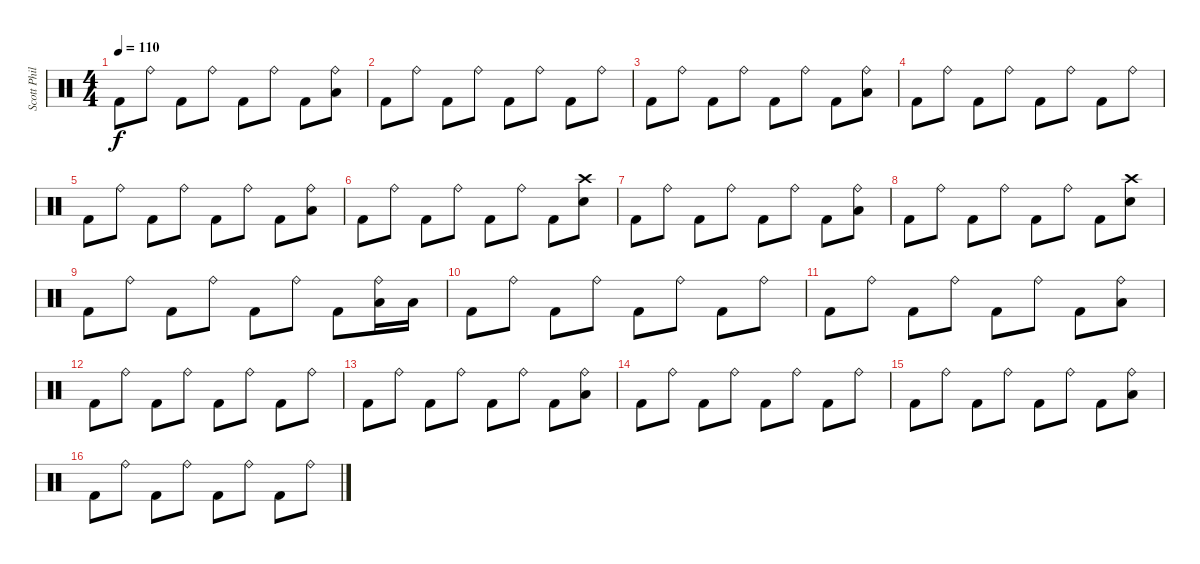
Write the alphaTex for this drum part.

\track ("Scott Phillips" "Scott Phil") {instrument percussion}
\staff {score}
\articulation defaults
\ts (4 4)
\tempo 110
\clef neutral
\ks c "Kick (hit) 2".8{dy f} "Ride (bell)".8 "Kick (hit) 2".8 "Ride (bell)".8 "Kick (hit) 2".8 "Ride (bell)".8 "Kick (hit) 2".8
("Ride (bell)" "Low Tom (hit)").8 |
"Kick (hit) 2".8 "Ride (bell)".8 "Kick (hit) 2".8 "Ride (bell)".8 "Kick (hit) 2".8 "Ride (bell)".8 "Kick (hit) 2".8 "Ride (bell)".8 |
"Kick (hit) 2".8 "Ride (bell)".8 "Kick (hit) 2".8 "Ride (bell)".8 "Kick (hit) 2".8 "Ride (bell)".8 "Kick (hit) 2".8 ("Ride (bell)" "Low Tom (hit)").8 |
"Kick (hit) 2".8 "Ride (bell)".8 "Kick (hit) 2".8 "Ride (bell)".8 "Kick (hit) 2".8 "Ride (bell)".8 "Kick (hit) 2".8 "Ride (bell)".8 |
"Kick (hit) 2".8 "Ride (bell)".8 "Kick (hit) 2".8 "Ride (bell)".8 "Kick (hit) 2".8 "Ride (bell)".8 "Kick (hit) 2".8 ("Ride (bell)" "Low Tom (hit)").8 |
"Kick (hit) 2".8 "Ride (bell)".8 "Kick (hit) 2".8 "Ride (bell)".8 "Kick (hit) 2".8 "Ride (bell)".8 "Kick (hit) 2".8 ("Crash high (hit)" "Electric Snare (hit)").8 |
"Kick (hit) 2".8 "Ride (bell)".8 "Kick (hit) 2".8 "Ride (bell)".8 "Kick (hit) 2".8 "Ride (bell)".8 "Kick (hit) 2".8 ("Ride (bell)" "Low Tom (hit)").8 |
"Kick (hit) 2".8 "Ride (bell)".8 "Kick (hit) 2".8 "Ride (bell)".8 "Kick (hit) 2".8 "Ride (bell)".8 "Kick (hit) 2".8 ("Crash high (hit)" "Electric Snare (hit)").8 |
"Kick (hit) 2".8 "Ride (bell)".8 "Kick (hit) 2".8 "Ride (bell)".8 "Kick (hit) 2".8 "Ride (bell)".8 "Kick (hit) 2".8 ("Ride (bell)" "Low Tom (hit)").16 "Low Tom (hit)".16 |
"Kick (hit) 2".8 "Ride (bell)".8 "Kick (hit) 2".8 "Ride (bell)".8 "Kick (hit) 2".8 "Ride (bell)".8 "Kick (hit) 2".8 "Ride (bell)".8 |
"Kick (hit) 2".8 "Ride (bell)".8 "Kick (hit) 2".8 "Ride (bell)".8 "Kick (hit) 2".8 "Ride (bell)".8 "Kick (hit) 2".8 ("Ride (bell)" "Low Tom (hit)").8 |
"Kick (hit) 2".8 "Ride (bell)".8 "Kick (hit) 2".8 "Ride (bell)".8 "Kick (hit) 2".8 "Ride (bell)".8 "Kick (hit) 2".8 "Ride (bell)".8 |
"Kick (hit) 2".8 "Ride (bell)".8 "Kick (hit) 2".8 "Ride (bell)".8 "Kick (hit) 2".8 "Ride (bell)".8 "Kick (hit) 2".8 ("Ride (bell)" "Low Tom (hit)").8 |
"Kick (hit) 2".8 "Ride (bell)".8 "Kick (hit) 2".8 "Ride (bell)".8 "Kick (hit) 2".8 "Ride (bell)".8 "Kick (hit) 2".8 "Ride (bell)".8 |
"Kick (hit) 2".8 "Ride (bell)".8 "Kick (hit) 2".8 "Ride (bell)".8 "Kick (hit) 2".8 "Ride (bell)".8 "Kick (hit) 2".8 ("Ride (bell)" "Low Tom (hit)").8 |
"Kick (hit) 2".8 "Ride (bell)".8 "Kick (hit) 2".8 "Ride (bell)".8 "Kick (hit) 2".8 "Ride (bell)".8 "Kick (hit) 2".8 "Ride (bell)".8
